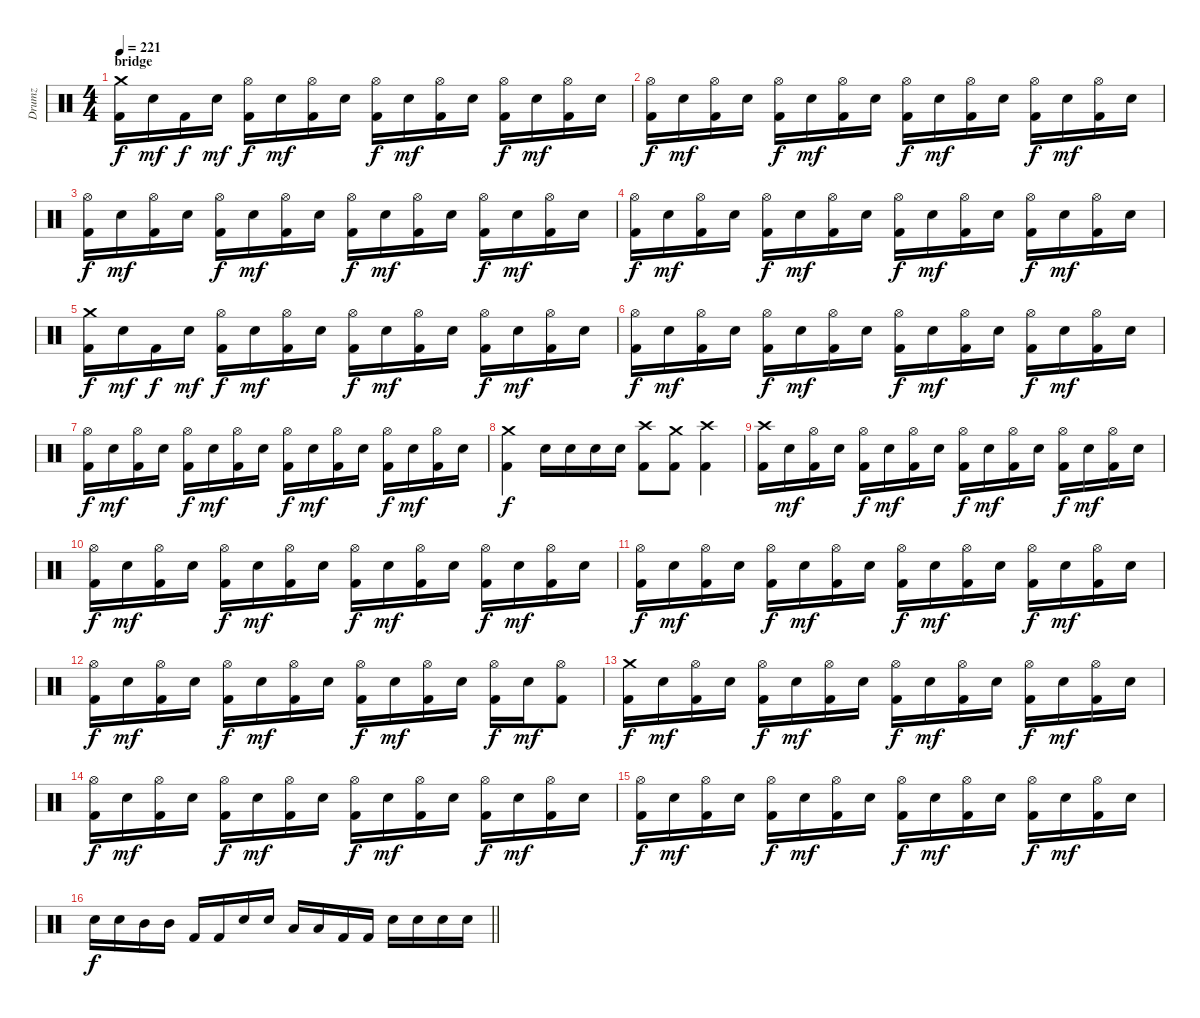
\track ("Drumz" "Drumz") {instrument percussion}
\staff {score}
\articulation defaults
\ts (4 4)
\section ("" "bridge")
\tempo 221
\clef neutral
\ks c
("Crash medium (hit)" "Kick (hit) 2").16{dy f} "Electric Snare (hit)".16{dy mf} "Kick (hit) 2".16{dy f} "Electric Snare (hit)".16{dy mf} ("Hi-Hat (open)" "Kick (hit) 2").16{dy f} "Electric Snare (hit)".16{dy mf} ("Hi-Hat (open)" "Kick (hit) 2").16 "Electric Snare (hit)".16 ("Hi-Hat (open)" "Kick (hit) 2").16{dy f} "Electric Snare (hit)".16{dy mf} ("Hi-Hat (open)" "Kick (hit) 2").16 "Electric Snare (hit)".16 ("Hi-Hat (open)" "Kick (hit) 2").16{dy f} "Electric Snare (hit)".16{dy mf} ("Hi-Hat (open)" "Kick (hit) 2").16 "Electric Snare (hit)".16 |
("Hi-Hat (open)" "Kick (hit) 2").16{dy f} "Electric Snare (hit)".16{dy mf} ("Hi-Hat (open)" "Kick (hit) 2").16 "Electric Snare (hit)".16 ("Hi-Hat (open)" "Kick (hit) 2").16{dy f} "Electric Snare (hit)".16{dy mf} ("Hi-Hat (open)" "Kick (hit) 2").16 "Electric Snare (hit)".16 ("Hi-Hat (open)" "Kick (hit) 2").16{dy f} "Electric Snare (hit)".16{dy mf} ("Hi-Hat (open)" "Kick (hit) 2").16 "Electric Snare (hit)".16 ("Hi-Hat (open)" "Kick (hit) 2").16{dy f} "Electric Snare (hit)".16{dy mf} ("Hi-Hat (open)" "Kick (hit) 2").16 "Electric Snare (hit)".16 |
("Hi-Hat (open)" "Kick (hit) 2").16{dy f} "Electric Snare (hit)".16{dy mf} ("Hi-Hat (open)" "Kick (hit) 2").16 "Electric Snare (hit)".16 ("Hi-Hat (open)" "Kick (hit) 2").16{dy f} "Electric Snare (hit)".16{dy mf} ("Hi-Hat (open)" "Kick (hit) 2").16 "Electric Snare (hit)".16 ("Hi-Hat (open)" "Kick (hit) 2").16{dy f} "Electric Snare (hit)".16{dy mf} ("Hi-Hat (open)" "Kick (hit) 2").16 "Electric Snare (hit)".16 ("Hi-Hat (open)" "Kick (hit) 2").16{dy f} "Electric Snare (hit)".16{dy mf} ("Hi-Hat (open)" "Kick (hit) 2").16 "Electric Snare (hit)".16 |
("Hi-Hat (open)" "Kick (hit) 2").16{dy f} "Electric Snare (hit)".16{dy mf} ("Hi-Hat (open)" "Kick (hit) 2").16 "Electric Snare (hit)".16 ("Hi-Hat (open)" "Kick (hit) 2").16{dy f} "Electric Snare (hit)".16{dy mf} ("Hi-Hat (open)" "Kick (hit) 2").16 "Electric Snare (hit)".16 ("Hi-Hat (open)" "Kick (hit) 2").16{dy f} "Electric Snare (hit)".16{dy mf} ("Hi-Hat (open)" "Kick (hit) 2").16 "Electric Snare (hit)".16 ("Hi-Hat (open)" "Kick (hit) 2").16{dy f} "Electric Snare (hit)".16{dy mf} ("Hi-Hat (open)" "Kick (hit) 2").16 "Electric Snare (hit)".16 |
("Crash medium (hit)" "Kick (hit) 2").16{dy f} "Electric Snare (hit)".16{dy mf} "Kick (hit) 2".16{dy f} "Electric Snare (hit)".16{dy mf} ("Hi-Hat (open)" "Kick (hit) 2").16{dy f} "Electric Snare (hit)".16{dy mf} ("Hi-Hat (open)" "Kick (hit) 2").16 "Electric Snare (hit)".16 ("Hi-Hat (open)" "Kick (hit) 2").16{dy f} "Electric Snare (hit)".16{dy mf} ("Hi-Hat (open)" "Kick (hit) 2").16 "Electric Snare (hit)".16 ("Hi-Hat (open)" "Kick (hit) 2").16{dy f} "Electric Snare (hit)".16{dy mf} ("Hi-Hat (open)" "Kick (hit) 2").16 "Electric Snare (hit)".16 |
("Hi-Hat (open)" "Kick (hit) 2").16{dy f} "Electric Snare (hit)".16{dy mf} ("Hi-Hat (open)" "Kick (hit) 2").16 "Electric Snare (hit)".16 ("Hi-Hat (open)" "Kick (hit) 2").16{dy f} "Electric Snare (hit)".16{dy mf} ("Hi-Hat (open)" "Kick (hit) 2").16 "Electric Snare (hit)".16 ("Hi-Hat (open)" "Kick (hit) 2").16{dy f} "Electric Snare (hit)".16{dy mf} ("Hi-Hat (open)" "Kick (hit) 2").16 "Electric Snare (hit)".16 ("Hi-Hat (open)" "Kick (hit) 2").16{dy f} "Electric Snare (hit)".16{dy mf} ("Hi-Hat (open)" "Kick (hit) 2").16 "Electric Snare (hit)".16 |
("Hi-Hat (open)" "Kick (hit) 2").16{dy f} "Electric Snare (hit)".16{dy mf} ("Hi-Hat (open)" "Kick (hit) 2").16 "Electric Snare (hit)".16 ("Hi-Hat (open)" "Kick (hit) 2").16{dy f} "Electric Snare (hit)".16{dy mf} ("Hi-Hat (open)" "Kick (hit) 2").16 "Electric Snare (hit)".16 ("Hi-Hat (open)" "Kick (hit) 2").16{dy f} "Electric Snare (hit)".16{dy mf} ("Hi-Hat (open)" "Kick (hit) 2").16 "Electric Snare (hit)".16 ("Hi-Hat (open)" "Kick (hit) 2").16{dy f} "Electric Snare (hit)".16{dy mf} ("Hi-Hat (open)" "Kick (hit) 2").16 "Electric Snare (hit)".16 |
("Crash medium (hit)" "Kick (hit) 2").4{dy f} "Electric Snare (hit)".16 "Electric Snare (hit)".16 "Electric Snare (hit)".16 "Electric Snare (hit)".16 ("Crash high (hit)" "Kick (hit) 2").8 ("Crash medium (hit)" "Kick (hit) 2").8 ("Crash high (hit)" "Kick (hit) 2").4 |
("Crash high (hit)" "Kick (hit) 2").16 "Electric Snare (hit)".16{dy mf} ("Hi-Hat (open)" "Kick (hit) 2").16 "Electric Snare (hit)".16 ("Hi-Hat (open)" "Kick (hit) 2").16{dy f} "Electric Snare (hit)".16{dy mf} ("Hi-Hat (open)" "Kick (hit) 2").16 "Electric Snare (hit)".16 ("Hi-Hat (open)" "Kick (hit) 2").16{dy f} "Electric Snare (hit)".16{dy mf} ("Hi-Hat (open)" "Kick (hit) 2").16 "Electric Snare (hit)".16 ("Hi-Hat (open)" "Kick (hit) 2").16{dy f} "Electric Snare (hit)".16{dy mf} ("Hi-Hat (open)" "Kick (hit) 2").16 "Electric Snare (hit)".16 |
("Hi-Hat (open)" "Kick (hit) 2").16{dy f} "Electric Snare (hit)".16{dy mf} ("Hi-Hat (open)" "Kick (hit) 2").16 "Electric Snare (hit)".16 ("Hi-Hat (open)" "Kick (hit) 2").16{dy f} "Electric Snare (hit)".16{dy mf} ("Hi-Hat (open)" "Kick (hit) 2").16 "Electric Snare (hit)".16 ("Hi-Hat (open)" "Kick (hit) 2").16{dy f} "Electric Snare (hit)".16{dy mf} ("Hi-Hat (open)" "Kick (hit) 2").16 "Electric Snare (hit)".16 ("Hi-Hat (open)" "Kick (hit) 2").16{dy f} "Electric Snare (hit)".16{dy mf} ("Hi-Hat (open)" "Kick (hit) 2").16 "Electric Snare (hit)".16 |
("Hi-Hat (open)" "Kick (hit) 2").16{dy f} "Electric Snare (hit)".16{dy mf} ("Hi-Hat (open)" "Kick (hit) 2").16 "Electric Snare (hit)".16 ("Hi-Hat (open)" "Kick (hit) 2").16{dy f} "Electric Snare (hit)".16{dy mf} ("Hi-Hat (open)" "Kick (hit) 2").16 "Electric Snare (hit)".16 ("Hi-Hat (open)" "Kick (hit) 2").16{dy f} "Electric Snare (hit)".16{dy mf} ("Hi-Hat (open)" "Kick (hit) 2").16 "Electric Snare (hit)".16 ("Hi-Hat (open)" "Kick (hit) 2").16{dy f} "Electric Snare (hit)".16{dy mf} ("Hi-Hat (open)" "Kick (hit) 2").16 "Electric Snare (hit)".16 |
("Hi-Hat (open)" "Kick (hit) 2").16{dy f} "Electric Snare (hit)".16{dy mf} ("Hi-Hat (open)" "Kick (hit) 2").16 "Electric Snare (hit)".16 ("Hi-Hat (open)" "Kick (hit) 2").16{dy f} "Electric Snare (hit)".16{dy mf} ("Hi-Hat (open)" "Kick (hit) 2").16 "Electric Snare (hit)".16 ("Hi-Hat (open)" "Kick (hit) 2").16{dy f} "Electric Snare (hit)".16{dy mf} ("Hi-Hat (open)" "Kick (hit) 2").16 "Electric Snare (hit)".16 ("Hi-Hat (open)" "Kick (hit) 2").16{dy f} "Electric Snare (hit)".16{dy mf} ("Hi-Hat (open)" "Kick (hit) 2").8 |
("Crash medium (hit)" "Kick (hit) 2").16{dy f} "Electric Snare (hit)".16{dy mf} ("Hi-Hat (open)" "Kick (hit) 2").16 "Electric Snare (hit)".16 ("Hi-Hat (open)" "Kick (hit) 2").16{dy f} "Electric Snare (hit)".16{dy mf} ("Hi-Hat (open)" "Kick (hit) 2").16 "Electric Snare (hit)".16 ("Hi-Hat (open)" "Kick (hit) 2").16{dy f} "Electric Snare (hit)".16{dy mf} ("Hi-Hat (open)" "Kick (hit) 2").16 "Electric Snare (hit)".16 ("Hi-Hat (open)" "Kick (hit) 2").16{dy f} "Electric Snare (hit)".16{dy mf} ("Hi-Hat (open)" "Kick (hit) 2").16 "Electric Snare (hit)".16 |
("Hi-Hat (open)" "Kick (hit) 2").16{dy f} "Electric Snare (hit)".16{dy mf} ("Hi-Hat (open)" "Kick (hit) 2").16 "Electric Snare (hit)".16 ("Hi-Hat (open)" "Kick (hit) 2").16{dy f} "Electric Snare (hit)".16{dy mf} ("Hi-Hat (open)" "Kick (hit) 2").16 "Electric Snare (hit)".16 ("Hi-Hat (open)" "Kick (hit) 2").16{dy f} "Electric Snare (hit)".16{dy mf} ("Hi-Hat (open)" "Kick (hit) 2").16 "Electric Snare (hit)".16 ("Hi-Hat (open)" "Kick (hit) 2").16{dy f} "Electric Snare (hit)".16{dy mf} ("Hi-Hat (open)" "Kick (hit) 2").16 "Electric Snare (hit)".16 |
("Hi-Hat (open)" "Kick (hit) 2").16{dy f} "Electric Snare (hit)".16{dy mf} ("Hi-Hat (open)" "Kick (hit) 2").16 "Electric Snare (hit)".16 ("Hi-Hat (open)" "Kick (hit) 2").16{dy f} "Electric Snare (hit)".16{dy mf} ("Hi-Hat (open)" "Kick (hit) 2").16 "Electric Snare (hit)".16 ("Hi-Hat (open)" "Kick (hit) 2").16{dy f} "Electric Snare (hit)".16{dy mf} ("Hi-Hat (open)" "Kick (hit) 2").16 "Electric Snare (hit)".16 ("Hi-Hat (open)" "Kick (hit) 2").16{dy f} "Electric Snare (hit)".16{dy mf} ("Hi-Hat (open)" "Kick (hit) 2").16 "Electric Snare (hit)".16 |
\barLineRight lightlight "Electric Snare (hit)".16{dy f} "Electric Snare (hit)".16 "Mid Tom (hit)".16 "Mid Tom (hit)".16 "Kick (hit) 2".16 "Kick (hit) 2".16 "Electric Snare (hit)".16 "Electric Snare (hit)".16 "Low Tom (hit)".16 "Low Tom (hit)".16 "Kick (hit) 2".16 "Kick (hit) 2".16 "Electric Snare (hit)".16 "Electric Snare (hit)".16 "Electric Snare (hit)".16 "Electric Snare (hit)".16
